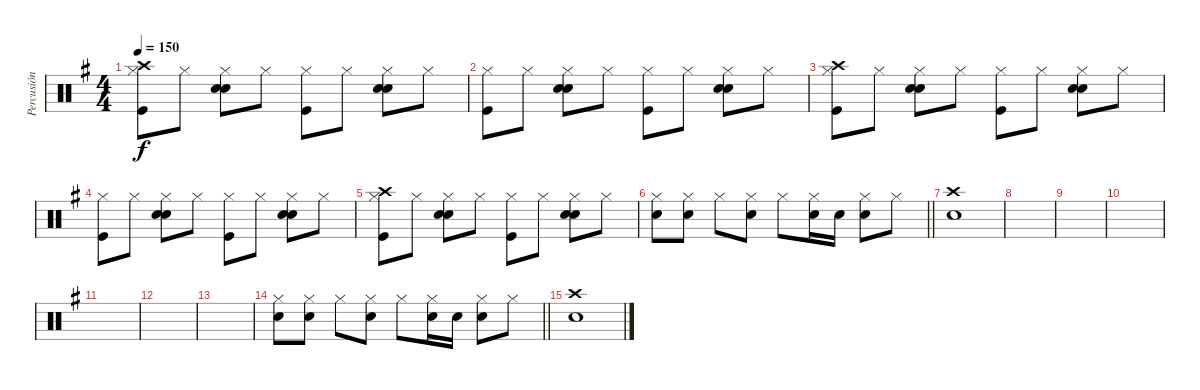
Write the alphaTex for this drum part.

\track ("Percusión" "Percusión") {instrument percussion}
\staff {score}
\articulation defaults
\ts (4 4)
\tempo 150
\clef neutral
\ks g
("Hi-Hat (closed)" "Kick (hit)" "Crash high (hit)").8{dy f} "Hi-Hat (closed)".8 ("Hi-Hat (closed)" "Snare (hit) 2" "Hand Clap (hit)").8 "Hi-Hat (closed)".8 ("Hi-Hat (closed)" "Kick (hit)").8 "Hi-Hat (closed)".8 ("Hi-Hat (closed)" "Snare (hit) 2" "Hand Clap (hit)").8 "Hi-Hat (closed)".8 |
("Hi-Hat (closed)" "Kick (hit)").8 "Hi-Hat (closed)".8 ("Hi-Hat (closed)" "Snare (hit) 2" "Hand Clap (hit)").8 "Hi-Hat (closed)".8 ("Hi-Hat (closed)" "Kick (hit)").8 "Hi-Hat (closed)".8 ("Hi-Hat (closed)" "Snare (hit) 2" "Hand Clap (hit)").8 "Hi-Hat (closed)".8 |
("Hi-Hat (closed)" "Kick (hit)" "Crash high (hit)").8 "Hi-Hat (closed)".8 ("Hi-Hat (closed)" "Snare (hit) 2" "Hand Clap (hit)").8 "Hi-Hat (closed)".8 ("Hi-Hat (closed)" "Kick (hit)").8 "Hi-Hat (closed)".8 ("Hi-Hat (closed)" "Snare (hit) 2" "Hand Clap (hit)").8 "Hi-Hat (closed)".8 |
("Hi-Hat (closed)" "Kick (hit)").8 "Hi-Hat (closed)".8 ("Hi-Hat (closed)" "Snare (hit) 2" "Hand Clap (hit)").8 "Hi-Hat (closed)".8 ("Hi-Hat (closed)" "Kick (hit)").8 "Hi-Hat (closed)".8 ("Hi-Hat (closed)" "Snare (hit) 2" "Hand Clap (hit)").8 "Hi-Hat (closed)".8 |
("Hi-Hat (closed)" "Kick (hit)" "Crash high (hit)").8 "Hi-Hat (closed)".8 ("Hi-Hat (closed)" "Snare (hit) 2" "Hand Clap (hit)").8 "Hi-Hat (closed)".8 ("Hi-Hat (closed)" "Kick (hit)").8 "Hi-Hat (closed)".8 ("Hi-Hat (closed)" "Snare (hit) 2" "Hand Clap (hit)").8 "Hi-Hat (closed)".8 |
\barLineRight lightlight
("Hi-Hat (closed)" "Snare (hit) 2").8 ("Hi-Hat (closed)" "Snare (hit) 2").8 "Hi-Hat (closed)".8 ("Hi-Hat (closed)" "Snare (hit) 2").8 "Hi-Hat (closed)".8 ("Hi-Hat (closed)" "Snare (hit) 2").16 "Snare (hit) 2".16 ("Hi-Hat (closed)" "Snare (hit) 2").8 "Hi-Hat (closed)".8 |
("Crash high (hit)" "Snare (hit) 2").1 |
|
|
|
|
|
|
\barLineRight lightlight
("Hi-Hat (closed)" "Snare (hit) 2").8 ("Hi-Hat (closed)" "Snare (hit) 2").8 "Hi-Hat (closed)".8 ("Hi-Hat (closed)" "Snare (hit) 2").8 "Hi-Hat (closed)".8 ("Hi-Hat (closed)" "Snare (hit) 2").16 "Snare (hit) 2".16 ("Hi-Hat (closed)" "Snare (hit) 2").8 "Hi-Hat (closed)".8 |
("Crash high (hit)" "Snare (hit) 2").1
